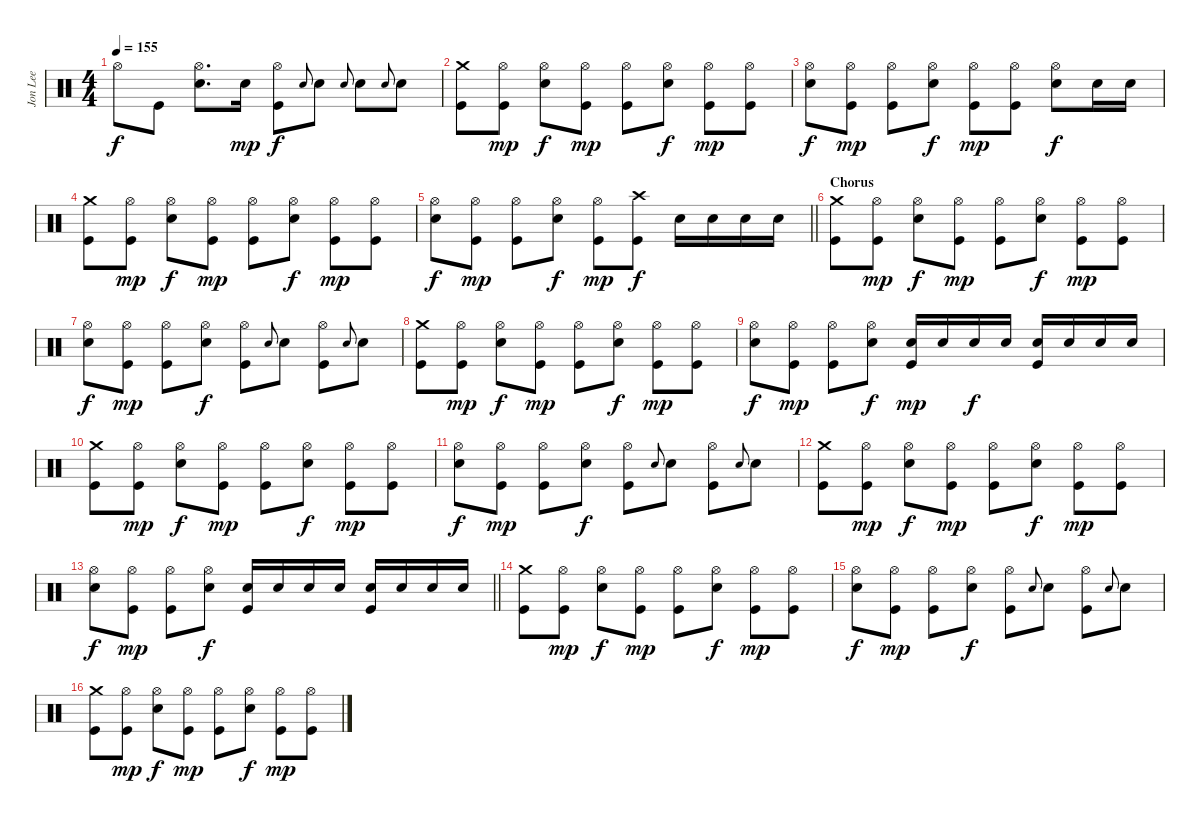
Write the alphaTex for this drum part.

\track ("Jon Lee" "Jon Lee") {instrument percussion}
\staff {score}
\articulation defaults
\ts (4 4)
\tempo 155
\clef neutral
\ks c "Hi-Hat (open)".8{dy f} "Kick (hit)".8
("Hi-Hat (open)" "Electric Snare (hit)").8{d} "Electric Snare (hit)".16{dy mp} ("Hi-Hat (open)" "Kick (hit)").8{dy f} "Electric Snare (hit)".8{gr onbeat} "Electric Snare (hit)".8 "Electric Snare (hit)".8{gr onbeat} "Electric Snare (hit)".8 "Electric Snare (hit)".8{gr onbeat} "Electric Snare (hit)".8 |
("Crash medium (hit)" "Kick (hit)").8 ("Hi-Hat (open)" "Kick (hit)").8{dy mp} ("Hi-Hat (open)" "Electric Snare (hit)").8{dy f} ("Hi-Hat (open)" "Kick (hit)").8{dy mp} ("Hi-Hat (open)" "Kick (hit)").8 ("Hi-Hat (open)" "Electric Snare (hit)").8{dy f} ("Hi-Hat (open)" "Kick (hit)").8{dy mp} ("Hi-Hat (open)" "Kick (hit)").8 |
("Hi-Hat (open)" "Electric Snare (hit)").8{dy f} ("Hi-Hat (open)" "Kick (hit)").8{dy mp} ("Hi-Hat (open)" "Kick (hit)").8 ("Hi-Hat (open)" "Electric Snare (hit)").8{dy f} ("Hi-Hat (open)" "Kick (hit)").8{dy mp} ("Hi-Hat (open)" "Kick (hit)").8 ("Hi-Hat (open)" "Electric Snare (hit)").8{dy f} "Electric Snare (hit)".16 "Electric Snare (hit)".16 |
("Crash medium (hit)" "Kick (hit)").8 ("Hi-Hat (open)" "Kick (hit)").8{dy mp} ("Hi-Hat (open)" "Electric Snare (hit)").8{dy f} ("Hi-Hat (open)" "Kick (hit)").8{dy mp} ("Hi-Hat (open)" "Kick (hit)").8 ("Hi-Hat (open)" "Electric Snare (hit)").8{dy f} ("Hi-Hat (open)" "Kick (hit)").8{dy mp} ("Hi-Hat (open)" "Kick (hit)").8 |
\barLineRight lightlight
("Hi-Hat (open)" "Electric Snare (hit)").8{dy f} ("Hi-Hat (open)" "Kick (hit)").8{dy mp} ("Hi-Hat (open)" "Kick (hit)").8 ("Hi-Hat (open)" "Electric Snare (hit)").8{dy f} ("Hi-Hat (open)" "Kick (hit)").8{dy mp} ("Crash high (hit)" "Kick (hit)").8{dy f} "Electric Snare (hit)".16 "Electric Snare (hit)".16 "Electric Snare (hit)".16 "Electric Snare (hit)".16 |
\section ("" "Chorus")
("Crash medium (hit)" "Kick (hit)").8 ("Hi-Hat (open)" "Kick (hit)").8{dy mp} ("Hi-Hat (open)" "Electric Snare (hit)").8{dy f} ("Hi-Hat (open)" "Kick (hit)").8{dy mp} ("Hi-Hat (open)" "Kick (hit)").8 ("Hi-Hat (open)" "Electric Snare (hit)").8{dy f} ("Hi-Hat (open)" "Kick (hit)").8{dy mp} ("Hi-Hat (open)" "Kick (hit)").8 |
("Hi-Hat (open)" "Electric Snare (hit)").8{dy f} ("Hi-Hat (open)" "Kick (hit)").8{dy mp} ("Hi-Hat (open)" "Kick (hit)").8 ("Hi-Hat (open)" "Electric Snare (hit)").8{dy f} ("Hi-Hat (open)" "Kick (hit)").8 "Electric Snare (hit)".8{gr onbeat} "Electric Snare (hit)".8 ("Hi-Hat (open)" "Kick (hit)").8 "Electric Snare (hit)".8{gr onbeat} "Electric Snare (hit)".8 |
("Crash medium (hit)" "Kick (hit)").8 ("Hi-Hat (open)" "Kick (hit)").8{dy mp} ("Hi-Hat (open)" "Electric Snare (hit)").8{dy f} ("Hi-Hat (open)" "Kick (hit)").8{dy mp} ("Hi-Hat (open)" "Kick (hit)").8 ("Hi-Hat (open)" "Electric Snare (hit)").8{dy f} ("Hi-Hat (open)" "Kick (hit)").8{dy mp} ("Hi-Hat (open)" "Kick (hit)").8 |
("Hi-Hat (open)" "Electric Snare (hit)").8{dy f} ("Hi-Hat (open)" "Kick (hit)").8{dy mp} ("Hi-Hat (open)" "Kick (hit)").8 ("Hi-Hat (open)" "Electric Snare (hit)").8{dy f} ("Electric Snare (hit)" "Kick (hit)").16{dy mp} "Electric Snare (hit)".16 "Electric Snare (hit)".16{dy f} "Electric Snare (hit)".16 ("Electric Snare (hit)" "Kick (hit)").16 "Electric Snare (hit)".16 "Electric Snare (hit)".16 "Electric Snare (hit)".16 |
("Crash medium (hit)" "Kick (hit)").8 ("Hi-Hat (open)" "Kick (hit)").8{dy mp} ("Hi-Hat (open)" "Electric Snare (hit)").8{dy f} ("Hi-Hat (open)" "Kick (hit)").8{dy mp} ("Hi-Hat (open)" "Kick (hit)").8 ("Hi-Hat (open)" "Electric Snare (hit)").8{dy f} ("Hi-Hat (open)" "Kick (hit)").8{dy mp} ("Hi-Hat (open)" "Kick (hit)").8 |
("Hi-Hat (open)" "Electric Snare (hit)").8{dy f} ("Hi-Hat (open)" "Kick (hit)").8{dy mp} ("Hi-Hat (open)" "Kick (hit)").8 ("Hi-Hat (open)" "Electric Snare (hit)").8{dy f} ("Hi-Hat (open)" "Kick (hit)").8 "Electric Snare (hit)".8{gr onbeat} "Electric Snare (hit)".8 ("Hi-Hat (open)" "Kick (hit)").8 "Electric Snare (hit)".8{gr onbeat} "Electric Snare (hit)".8 |
("Crash medium (hit)" "Kick (hit)").8 ("Hi-Hat (open)" "Kick (hit)").8{dy mp} ("Hi-Hat (open)" "Electric Snare (hit)").8{dy f} ("Hi-Hat (open)" "Kick (hit)").8{dy mp} ("Hi-Hat (open)" "Kick (hit)").8 ("Hi-Hat (open)" "Electric Snare (hit)").8{dy f} ("Hi-Hat (open)" "Kick (hit)").8{dy mp} ("Hi-Hat (open)" "Kick (hit)").8 |
\barLineRight lightlight
("Hi-Hat (open)" "Electric Snare (hit)").8{dy f} ("Hi-Hat (open)" "Kick (hit)").8{dy mp} ("Hi-Hat (open)" "Kick (hit)").8 ("Hi-Hat (open)" "Electric Snare (hit)").8{dy f} ("Electric Snare (hit)" "Kick (hit)").16 "Electric Snare (hit)".16 "Electric Snare (hit)".16 "Electric Snare (hit)".16 ("Electric Snare (hit)" "Kick (hit)").16 "Electric Snare (hit)".16 "Electric Snare (hit)".16 "Electric Snare (hit)".16 |
("Crash medium (hit)" "Kick (hit)").8 ("Hi-Hat (open)" "Kick (hit)").8{dy mp} ("Hi-Hat (open)" "Electric Snare (hit)").8{dy f} ("Hi-Hat (open)" "Kick (hit)").8{dy mp} ("Hi-Hat (open)" "Kick (hit)").8 ("Hi-Hat (open)" "Electric Snare (hit)").8{dy f} ("Hi-Hat (open)" "Kick (hit)").8{dy mp} ("Hi-Hat (open)" "Kick (hit)").8 |
("Hi-Hat (open)" "Electric Snare (hit)").8{dy f} ("Hi-Hat (open)" "Kick (hit)").8{dy mp} ("Hi-Hat (open)" "Kick (hit)").8 ("Hi-Hat (open)" "Electric Snare (hit)").8{dy f} ("Hi-Hat (open)" "Kick (hit)").8 "Electric Snare (hit)".8{gr onbeat} "Electric Snare (hit)".8 ("Hi-Hat (open)" "Kick (hit)").8 "Electric Snare (hit)".8{gr onbeat} "Electric Snare (hit)".8 |
("Crash medium (hit)" "Kick (hit)").8 ("Hi-Hat (open)" "Kick (hit)").8{dy mp} ("Hi-Hat (open)" "Electric Snare (hit)").8{dy f} ("Hi-Hat (open)" "Kick (hit)").8{dy mp} ("Hi-Hat (open)" "Kick (hit)").8 ("Hi-Hat (open)" "Electric Snare (hit)").8{dy f} ("Hi-Hat (open)" "Kick (hit)").8{dy mp} ("Hi-Hat (open)" "Kick (hit)").8
